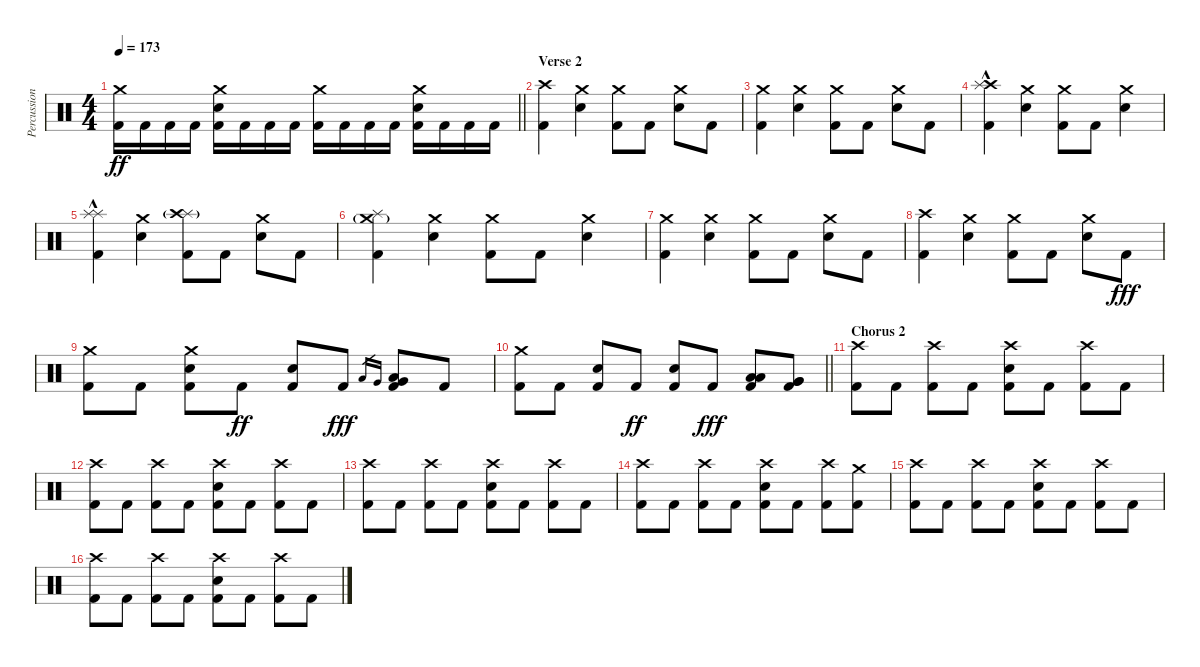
\track ("Percussion" "Percussion") {instrument percussion}
\staff {score}
\articulation defaults
\ts (4 4)
\tempo 173
\clef neutral
\barLineRight lightlight
\ks c
("Crash medium (hit)" "Kick (hit) 2").16{dy ff} "Kick (hit) 2".16 "Kick (hit) 2".16 "Kick (hit) 2".16 ("Crash medium (hit)" "Electric Snare (hit)" "Kick (hit) 2").16 "Kick (hit) 2".16 "Kick (hit) 2".16 "Kick (hit) 2".16 ("Crash medium (hit)" "Kick (hit) 2").16 "Kick (hit) 2".16 "Kick (hit) 2".16 "Kick (hit) 2".16 ("Crash medium (hit)" "Electric Snare (hit)" "Kick (hit) 2").16 "Kick (hit) 2".16 "Kick (hit) 2".16 "Kick (hit) 2".16 |
\section ("" "Verse 2")
("Crash high (hit)" "Kick (hit) 2").4 ("Crash medium (hit)" "Electric Snare (hit)").4 ("Crash medium (hit)" "Kick (hit) 2").8 "Kick (hit) 2".8 ("Crash medium (hit)" "Electric Snare (hit)").8 "Kick (hit) 2".8 |
("Crash medium (hit)" "Kick (hit) 2").4 ("Crash medium (hit)" "Electric Snare (hit)").4 ("Crash medium (hit)" "Kick (hit) 2").8 "Kick (hit) 2".8 ("Crash medium (hit)" "Electric Snare (hit)").8 "Kick (hit) 2".8 |
("Crash high (hit)"{hac} "Splash (hit)" "Kick (hit) 2").4 ("Crash medium (hit)" "Electric Snare (hit)").4 ("Crash medium (hit)" "Kick (hit) 2").8 "Kick (hit) 2".8 ("Crash medium (hit)" "Electric Snare (hit)").4 |
("Splash (hit)"{hac} "Splash (hit)" "Kick (hit) 2").4 ("Crash medium (hit)" "Electric Snare (hit)").4 ("Splash (hit)" "Crash high (hit)"{g} "Kick (hit) 2").8 "Kick (hit) 2".8 ("Crash medium (hit)" "Electric Snare (hit)").8 "Kick (hit) 2".8 |
("Crash medium (hit)"{g} "Splash (hit)" "Kick (hit) 2").4 ("Crash medium (hit)" "Electric Snare (hit)").4 ("Crash medium (hit)" "Kick (hit) 2").8 "Kick (hit) 2".8 ("Crash medium (hit)" "Electric Snare (hit)").4 |
("Crash medium (hit)" "Kick (hit) 2").4 ("Crash medium (hit)" "Electric Snare (hit)").4 ("Crash medium (hit)" "Kick (hit) 2").8 "Kick (hit) 2".8 ("Crash medium (hit)" "Electric Snare (hit)").8 "Kick (hit) 2".8 |
("Crash high (hit)" "Kick (hit) 2").4 ("Crash medium (hit)" "Electric Snare (hit)").4 ("Crash medium (hit)" "Kick (hit) 2").8 "Kick (hit) 2".8 ("Crash medium (hit)" "Electric Snare (hit)").8 "Kick (hit) 2".8{dy fff} |
("Crash medium (hit)" "Kick (hit) 2").8 "Kick (hit) 2".8 ("Crash medium (hit)" "Electric Snare (hit)" "Kick (hit) 2").8 "Kick (hit) 2".8{dy ff} ("Electric Snare (hit)" "Kick (hit) 2").8 "Kick (hit) 2".8{dy fff} "Low Tom (hit)".16{gr} "Very Low Tom (hit)".16{gr} ("Low Tom (hit)" "Very Low Tom (hit)" "Kick (hit) 2").8 "Kick (hit) 2".8 |
\barLineRight lightlight
("Crash medium (hit)" "Kick (hit) 2").8 "Kick (hit) 2".8 ("Electric Snare (hit)" "Kick (hit) 2").8 "Kick (hit) 2".8{dy ff} ("Electric Snare (hit)" "Kick (hit) 2").8 "Kick (hit) 2".8{dy fff} ("Low Tom (hit)" "Low Tom (hit)" "Kick (hit) 2").8 ("Very Low Tom (hit)" "Very Low Tom (hit)" "Kick (hit) 2").8 |
\section ("" "Chorus 2")
("Crash high (hit)" "Kick (hit) 2").8 "Kick (hit) 2".8 ("Crash high (hit)" "Kick (hit) 2").8 "Kick (hit) 2".8 ("Crash high (hit)" "Electric Snare (hit)" "Kick (hit) 2").8 "Kick (hit) 2".8 ("Crash high (hit)" "Kick (hit) 2").8 "Kick (hit) 2".8 |
("Crash high (hit)" "Kick (hit) 2").8 "Kick (hit) 2".8 ("Crash high (hit)" "Kick (hit) 2").8 "Kick (hit) 2".8 ("Crash high (hit)" "Electric Snare (hit)" "Kick (hit) 2").8 "Kick (hit) 2".8 ("Crash high (hit)" "Kick (hit) 2").8 "Kick (hit) 2".8 |
("Crash high (hit)" "Kick (hit) 2").8 "Kick (hit) 2".8 ("Crash high (hit)" "Kick (hit) 2").8 "Kick (hit) 2".8 ("Crash high (hit)" "Electric Snare (hit)" "Kick (hit) 2").8 "Kick (hit) 2".8 ("Crash high (hit)" "Kick (hit) 2").8 "Kick (hit) 2".8 |
("Crash high (hit)" "Kick (hit) 2").8 "Kick (hit) 2".8 ("Crash high (hit)" "Kick (hit) 2").8 "Kick (hit) 2".8 ("Crash high (hit)" "Electric Snare (hit)" "Kick (hit) 2").8 "Kick (hit) 2".8 ("Crash high (hit)" "Kick (hit) 2").8 ("Crash medium (hit)" "Kick (hit) 2").8 |
("Crash high (hit)" "Kick (hit) 2").8 "Kick (hit) 2".8 ("Crash high (hit)" "Kick (hit) 2").8 "Kick (hit) 2".8 ("Crash high (hit)" "Electric Snare (hit)" "Kick (hit) 2").8 "Kick (hit) 2".8 ("Crash high (hit)" "Kick (hit) 2").8 "Kick (hit) 2".8 |
("Crash high (hit)" "Kick (hit) 2").8 "Kick (hit) 2".8 ("Crash high (hit)" "Kick (hit) 2").8 "Kick (hit) 2".8 ("Crash high (hit)" "Electric Snare (hit)" "Kick (hit) 2").8 "Kick (hit) 2".8 ("Crash high (hit)" "Kick (hit) 2").8 "Kick (hit) 2".8
